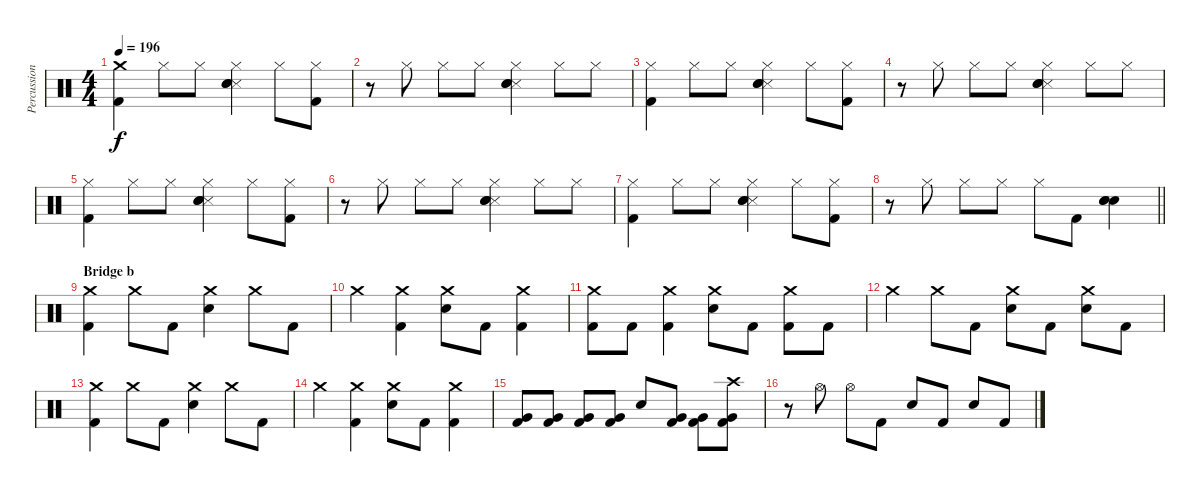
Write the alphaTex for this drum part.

\track ("Percussion" "Percussion") {instrument percussion}
\staff {score}
\articulation defaults
\ts (4 4)
\tempo 196
\clef neutral
\ks c
("Crash medium (hit)" "Kick (hit) 2").4{dy f} "Hi-Hat (closed)".8 "Hi-Hat (closed)".8 ("Hi-Hat (closed)" "Snare (side stick) 3" "Hand Clap (hit)" "Hand Clap (hit)").4 "Hi-Hat (closed)".8 ("Hi-Hat (closed)" "Kick (hit) 2").8 |
r.8 "Hi-Hat (closed)".8 "Hi-Hat (closed)".8 "Hi-Hat (closed)".8 ("Hi-Hat (closed)" "Snare (side stick) 3" "Hand Clap (hit)" "Hand Clap (hit)").4 "Hi-Hat (closed)".8 "Hi-Hat (closed)".8 |
("Hi-Hat (closed)" "Kick (hit) 2").4 "Hi-Hat (closed)".8 "Hi-Hat (closed)".8 ("Hi-Hat (closed)" "Snare (side stick) 3" "Hand Clap (hit)" "Hand Clap (hit)").4 "Hi-Hat (closed)".8 ("Hi-Hat (closed)" "Kick (hit) 2").8 |
r.8 "Hi-Hat (closed)".8 "Hi-Hat (closed)".8 "Hi-Hat (closed)".8 ("Hi-Hat (closed)" "Snare (side stick) 3" "Hand Clap (hit)" "Hand Clap (hit)").4 "Hi-Hat (closed)".8 "Hi-Hat (closed)".8 |
("Hi-Hat (closed)" "Kick (hit) 2").4 "Hi-Hat (closed)".8 "Hi-Hat (closed)".8 ("Hi-Hat (closed)" "Snare (side stick) 3" "Hand Clap (hit)" "Hand Clap (hit)").4 "Hi-Hat (closed)".8 ("Hi-Hat (closed)" "Kick (hit) 2").8 |
r.8 "Hi-Hat (closed)".8 "Hi-Hat (closed)".8 "Hi-Hat (closed)".8 ("Hi-Hat (closed)" "Snare (side stick) 3" "Hand Clap (hit)" "Hand Clap (hit)").4 "Hi-Hat (closed)".8 "Hi-Hat (closed)".8 |
("Hi-Hat (closed)" "Kick (hit) 2").4 "Hi-Hat (closed)".8 "Hi-Hat (closed)".8 ("Hi-Hat (closed)" "Snare (side stick) 3" "Hand Clap (hit)" "Hand Clap (hit)").4 "Hi-Hat (closed)".8 ("Hi-Hat (closed)" "Kick (hit) 2").8 |
\barLineRight lightlight
r.8 "Hi-Hat (closed)".8 "Hi-Hat (closed)".8 "Hi-Hat (closed)".8 "Hi-Hat (closed)".8 "Kick (hit) 2".8 ("Electric Snare (hit)" "Electric Snare (hit)" "Electric Snare (hit)").4 |
\section ("" "Bridge b")
("Crash medium (hit)" "Kick (hit) 2").4 "Crash medium (hit)".8 "Kick (hit) 2".8 ("Crash medium (hit)" "Electric Snare (hit)").4 "Crash medium (hit)".8 "Kick (hit) 2".8 |
"Crash medium (hit)".4 ("Crash medium (hit)" "Kick (hit) 2").4 ("Crash medium (hit)" "Electric Snare (hit)").8 "Kick (hit) 2".8 ("Crash medium (hit)" "Kick (hit) 2").4 |
("Crash medium (hit)" "Kick (hit) 2").8 "Kick (hit) 2".8 ("Crash medium (hit)" "Kick (hit) 2").4 ("Crash medium (hit)" "Electric Snare (hit)").8 "Kick (hit) 2".8 ("Crash medium (hit)" "Kick (hit) 2").8 "Kick (hit) 2".8 |
"Crash medium (hit)".4 "Crash medium (hit)".8 "Kick (hit) 2".8 ("Crash medium (hit)" "Electric Snare (hit)").8 "Kick (hit) 2".8 ("Crash medium (hit)" "Electric Snare (hit)").8 "Kick (hit) 2".8 |
("Crash medium (hit)" "Kick (hit) 2").4 "Crash medium (hit)".8 "Kick (hit) 2".8 ("Crash medium (hit)" "Electric Snare (hit)").4 "Crash medium (hit)".8 "Kick (hit) 2".8 |
"Crash medium (hit)".4 ("Crash medium (hit)" "Kick (hit) 2").4 ("Crash medium (hit)" "Electric Snare (hit)").8 "Kick (hit) 2".8 ("Crash medium (hit)" "Kick (hit) 2").4 |
("Very Low Tom (hit)" "Kick (hit) 2").8 ("Very Low Tom (hit)" "Kick (hit) 2").8 ("Very Low Tom (hit)" "Kick (hit) 2").8 ("Very Low Tom (hit)" "Kick (hit) 2").8 "Electric Snare (hit)".8 ("Very Low Tom (hit)" "Kick (hit) 2").8 ("Very Low Tom (hit)" "Kick (hit) 2").8 ("Crash high (hit)" "Very Low Tom (hit)" "Kick (hit) 2").8 |
r.8 "Hi-Hat (open)".8 "Hi-Hat (open)".8 "Kick (hit) 2".8 "Electric Snare (hit)".8 "Kick (hit) 2".8 "Electric Snare (hit)".8 "Kick (hit) 2".8
